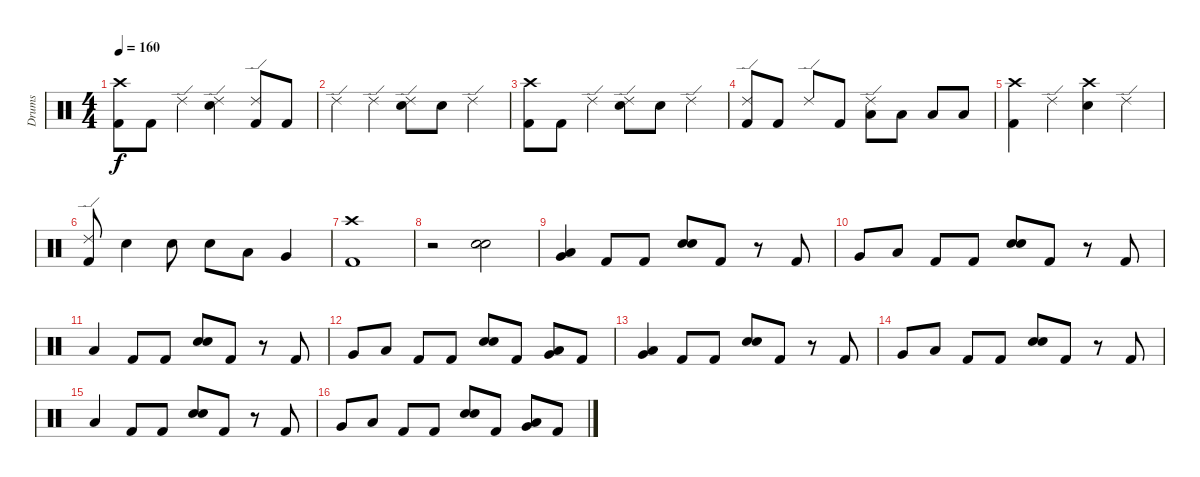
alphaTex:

\track ("Drums" "Drums") {instrument percussion}
\staff {score}
\articulation defaults
\ts (4 4)
\tempo 160
\clef neutral
\ks c
("Crash high (hit)" "Kick (hit) 2").8{dy f} "Kick (hit) 2".8 "Ride (edge) 2".4 ("Ride (edge) 2" "Electric Snare (hit)").4 ("Ride (edge) 2" "Kick (hit) 2").8 "Kick (hit) 2".8 |
"Ride (edge) 2".4 "Ride (edge) 2".4 ("Ride (edge) 2" "Electric Snare (hit)").8 "Electric Snare (hit)".8 "Ride (edge) 2".4 |
("Crash high (hit)" "Kick (hit) 2").8 "Kick (hit) 2".8 "Ride (edge) 2".4 ("Ride (edge) 2" "Electric Snare (hit)").8 "Electric Snare (hit)".8 "Ride (edge) 2".4 |
("Ride (edge) 2" "Kick (hit) 2").8 "Kick (hit) 2".8 "Ride (edge) 2".8 "Kick (hit) 2".8 ("Ride (edge) 2" "Low Floor Tom (hit)").8 "Low Floor Tom (hit)".8 "Low Floor Tom (hit)".8 "Low Floor Tom (hit)".8 |
("Crash high (hit)" "Kick (hit) 2").4 "Ride (edge) 2".4 ("Crash high (hit)" "Electric Snare (hit)").4 "Ride (edge) 2".4 |
("Ride (edge) 2" "Kick (hit) 2").8 "Electric Snare (hit)".4 "Electric Snare (hit)".8 "Electric Snare (hit)".8 "Low Tom (hit)".8 "Very Low Tom (hit)".4 |
("Crash high (hit)" "Kick (hit) 2").1 |
r.2 ("Electric Snare (hit)" "Electric Snare (hit)").2{bd 120} |
("Very Low Tom (hit)" "Low Floor Tom (hit)").4{bd 120} "Kick (hit) 2".8 "Kick (hit) 2".8 ("Electric Snare (hit)" "Electric Snare (hit)").8{bd 120} "Kick (hit) 2".8 r.8 "Kick (hit) 2".8 |
"Very Low Tom (hit)".8 "Low Floor Tom (hit)".8 "Kick (hit) 2".8 "Kick (hit) 2".8 ("Electric Snare (hit)" "Electric Snare (hit)").8{bd 120} "Kick (hit) 2".8 r.8 "Kick (hit) 2".8 |
"Low Floor Tom (hit)".4 "Kick (hit) 2".8 "Kick (hit) 2".8 ("Electric Snare (hit)" "Electric Snare (hit)").8{bd 120} "Kick (hit) 2".8 r.8 "Kick (hit) 2".8 |
"Very Low Tom (hit)".8 "Low Floor Tom (hit)".8 "Kick (hit) 2".8 "Kick (hit) 2".8 ("Electric Snare (hit)" "Electric Snare (hit)").8{bd 120} "Kick (hit) 2".8 ("Low Floor Tom (hit)" "Very Low Tom (hit)").8{bd 120} "Kick (hit) 2".8 |
("Very Low Tom (hit)" "Low Floor Tom (hit)").4{bd 120} "Kick (hit) 2".8 "Kick (hit) 2".8 ("Electric Snare (hit)" "Electric Snare (hit)").8{bd 120} "Kick (hit) 2".8 r.8 "Kick (hit) 2".8 |
"Very Low Tom (hit)".8 "Low Floor Tom (hit)".8 "Kick (hit) 2".8 "Kick (hit) 2".8 ("Electric Snare (hit)" "Electric Snare (hit)").8{bd 120} "Kick (hit) 2".8 r.8 "Kick (hit) 2".8 |
"Low Floor Tom (hit)".4 "Kick (hit) 2".8 "Kick (hit) 2".8 ("Electric Snare (hit)" "Electric Snare (hit)").8{bd 120} "Kick (hit) 2".8 r.8 "Kick (hit) 2".8 |
"Very Low Tom (hit)".8 "Low Floor Tom (hit)".8 "Kick (hit) 2".8 "Kick (hit) 2".8 ("Electric Snare (hit)" "Electric Snare (hit)").8{bd 120} "Kick (hit) 2".8 ("Low Floor Tom (hit)" "Very Low Tom (hit)").8{bd 120} "Kick (hit) 2".8
